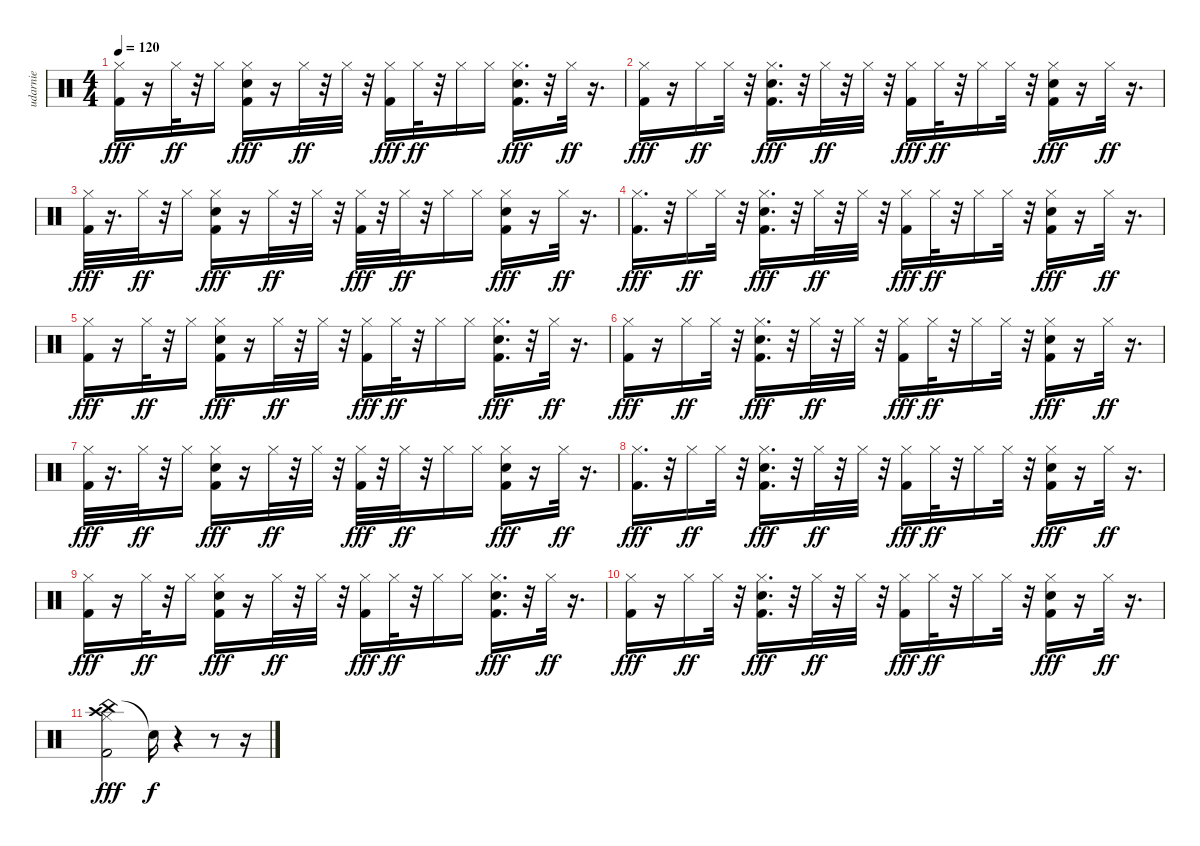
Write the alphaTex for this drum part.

\track ("udarnie" "udarnie") {instrument percussion}
\staff {score}
\articulation defaults
\ts (4 4)
\tempo 120
\clef neutral
\ks c
("Hi-Hat (closed)" "Kick (hit) 2").16{dy fff} r.16 "Hi-Hat (closed)".32{dy ff} r.32 "Hi-Hat (closed)".16 ("Hi-Hat (closed)" "Electric Snare (hit)" "Kick (hit) 2").16{dy fff} r.16 "Hi-Hat (closed)".32{dy ff} r.32 "Hi-Hat (closed)".32 r.32 ("Hi-Hat (closed)" "Kick (hit) 2").16{dy fff} "Hi-Hat (closed)".32{dy ff} r.32 "Hi-Hat (closed)".16 "Hi-Hat (closed)".16 ("Hi-Hat (closed)" "Electric Snare (hit)" "Kick (hit) 2").16{d dy fff} r.32 "Hi-Hat (closed)".32{dy ff} r.16{d} |
("Hi-Hat (closed)" "Kick (hit) 2").16{dy fff} r.16 "Hi-Hat (closed)".16{dy ff} "Hi-Hat (closed)".32 r.32 ("Hi-Hat (closed)" "Electric Snare (hit)" "Kick (hit) 2").16{d dy fff} r.32 "Hi-Hat (closed)".32{dy ff} r.32 "Hi-Hat (closed)".32 r.32 ("Hi-Hat (closed)" "Kick (hit) 2").16{dy fff} "Hi-Hat (closed)".32{dy ff} r.32 "Hi-Hat (closed)".16 "Hi-Hat (closed)".32 r.32 ("Hi-Hat (closed)" "Electric Snare (hit)" "Kick (hit) 2").16{dy fff} r.16 "Hi-Hat (closed)".32{dy ff} r.16{d} |
("Hi-Hat (closed)" "Kick (hit) 2").32{dy fff} r.16{d} "Hi-Hat (closed)".32{dy ff} r.32 "Hi-Hat (closed)".16 ("Hi-Hat (closed)" "Electric Snare (hit)" "Kick (hit) 2").16{dy fff} r.16 "Hi-Hat (closed)".32{dy ff} r.32 "Hi-Hat (closed)".32 r.32 ("Hi-Hat (closed)" "Kick (hit) 2").32{dy fff} r.32 "Hi-Hat (closed)".32{dy ff} r.32 "Hi-Hat (closed)".16 "Hi-Hat (closed)".16 ("Hi-Hat (closed)" "Electric Snare (hit)" "Kick (hit) 2").16{dy fff} r.16 "Hi-Hat (closed)".32{dy ff} r.16{d} |
("Hi-Hat (closed)" "Kick (hit) 2").16{d dy fff} r.32 "Hi-Hat (closed)".16{dy ff} "Hi-Hat (closed)".32 r.32 ("Hi-Hat (closed)" "Electric Snare (hit)" "Kick (hit) 2").16{d dy fff} r.32 "Hi-Hat (closed)".32{dy ff} r.32 "Hi-Hat (closed)".32 r.32 ("Hi-Hat (closed)" "Kick (hit) 2").16{dy fff} "Hi-Hat (closed)".32{dy ff} r.32 "Hi-Hat (closed)".16 "Hi-Hat (closed)".32 r.32 ("Hi-Hat (closed)" "Electric Snare (hit)" "Kick (hit) 2").16{dy fff} r.16 "Hi-Hat (closed)".32{dy ff} r.16{d} |
("Hi-Hat (closed)" "Kick (hit) 2").16{dy fff} r.16 "Hi-Hat (closed)".32{dy ff} r.32 "Hi-Hat (closed)".16 ("Hi-Hat (closed)" "Electric Snare (hit)" "Kick (hit) 2").16{dy fff} r.16 "Hi-Hat (closed)".32{dy ff} r.32 "Hi-Hat (closed)".32 r.32 ("Hi-Hat (closed)" "Kick (hit) 2").16{dy fff} "Hi-Hat (closed)".32{dy ff} r.32 "Hi-Hat (closed)".16 "Hi-Hat (closed)".16 ("Hi-Hat (closed)" "Electric Snare (hit)" "Kick (hit) 2").16{d dy fff} r.32 "Hi-Hat (closed)".32{dy ff} r.16{d} |
("Hi-Hat (closed)" "Kick (hit) 2").16{dy fff} r.16 "Hi-Hat (closed)".16{dy ff} "Hi-Hat (closed)".32 r.32 ("Hi-Hat (closed)" "Electric Snare (hit)" "Kick (hit) 2").16{d dy fff} r.32 "Hi-Hat (closed)".32{dy ff} r.32 "Hi-Hat (closed)".32 r.32 ("Hi-Hat (closed)" "Kick (hit) 2").16{dy fff} "Hi-Hat (closed)".32{dy ff} r.32 "Hi-Hat (closed)".16 "Hi-Hat (closed)".32 r.32 ("Hi-Hat (closed)" "Electric Snare (hit)" "Kick (hit) 2").16{dy fff} r.16 "Hi-Hat (closed)".32{dy ff} r.16{d} |
("Hi-Hat (closed)" "Kick (hit) 2").32{dy fff} r.16{d} "Hi-Hat (closed)".32{dy ff} r.32 "Hi-Hat (closed)".16 ("Hi-Hat (closed)" "Electric Snare (hit)" "Kick (hit) 2").16{dy fff} r.16 "Hi-Hat (closed)".32{dy ff} r.32 "Hi-Hat (closed)".32 r.32 ("Hi-Hat (closed)" "Kick (hit) 2").32{dy fff} r.32 "Hi-Hat (closed)".32{dy ff} r.32 "Hi-Hat (closed)".16 "Hi-Hat (closed)".16 ("Hi-Hat (closed)" "Electric Snare (hit)" "Kick (hit) 2").16{dy fff} r.16 "Hi-Hat (closed)".32{dy ff} r.16{d} |
("Hi-Hat (closed)" "Kick (hit) 2").16{d dy fff} r.32 "Hi-Hat (closed)".16{dy ff} "Hi-Hat (closed)".32 r.32 ("Hi-Hat (closed)" "Electric Snare (hit)" "Kick (hit) 2").16{d dy fff} r.32 "Hi-Hat (closed)".32{dy ff} r.32 "Hi-Hat (closed)".32 r.32 ("Hi-Hat (closed)" "Kick (hit) 2").16{dy fff} "Hi-Hat (closed)".32{dy ff} r.32 "Hi-Hat (closed)".16 "Hi-Hat (closed)".32 r.32 ("Hi-Hat (closed)" "Electric Snare (hit)" "Kick (hit) 2").16{dy fff} r.16 "Hi-Hat (closed)".32{dy ff} r.16{d} |
("Hi-Hat (closed)" "Kick (hit) 2").16{dy fff} r.16 "Hi-Hat (closed)".32{dy ff} r.32 "Hi-Hat (closed)".16 ("Hi-Hat (closed)" "Electric Snare (hit)" "Kick (hit) 2").16{dy fff} r.16 "Hi-Hat (closed)".32{dy ff} r.32 "Hi-Hat (closed)".32 r.32 ("Hi-Hat (closed)" "Kick (hit) 2").16{dy fff} "Hi-Hat (closed)".32{dy ff} r.32 "Hi-Hat (closed)".16 "Hi-Hat (closed)".16 ("Hi-Hat (closed)" "Electric Snare (hit)" "Kick (hit) 2").16{d dy fff} r.32 "Hi-Hat (closed)".32{dy ff} r.16{d} |
("Hi-Hat (closed)" "Kick (hit) 2").16{dy fff} r.16 "Hi-Hat (closed)".16{dy ff} "Hi-Hat (closed)".32 r.32 ("Hi-Hat (closed)" "Electric Snare (hit)" "Kick (hit) 2").16{d dy fff} r.32 "Hi-Hat (closed)".32{dy ff} r.32 "Hi-Hat (closed)".32 r.32 ("Hi-Hat (closed)" "Kick (hit) 2").16{dy fff} "Hi-Hat (closed)".32{dy ff} r.32 "Hi-Hat (closed)".16 "Hi-Hat (closed)".32 r.32 ("Hi-Hat (closed)" "Electric Snare (hit)" "Kick (hit) 2").16{dy fff} r.16 "Hi-Hat (closed)".32{dy ff} r.16{d} |
("China (hit)" "Hi-Hat (closed)" "Crash high (hit)" "Kick (hit) 2").2{dy fff} "Snare (hit)"{t}.16{dy f} r.4 r.8 r.16
